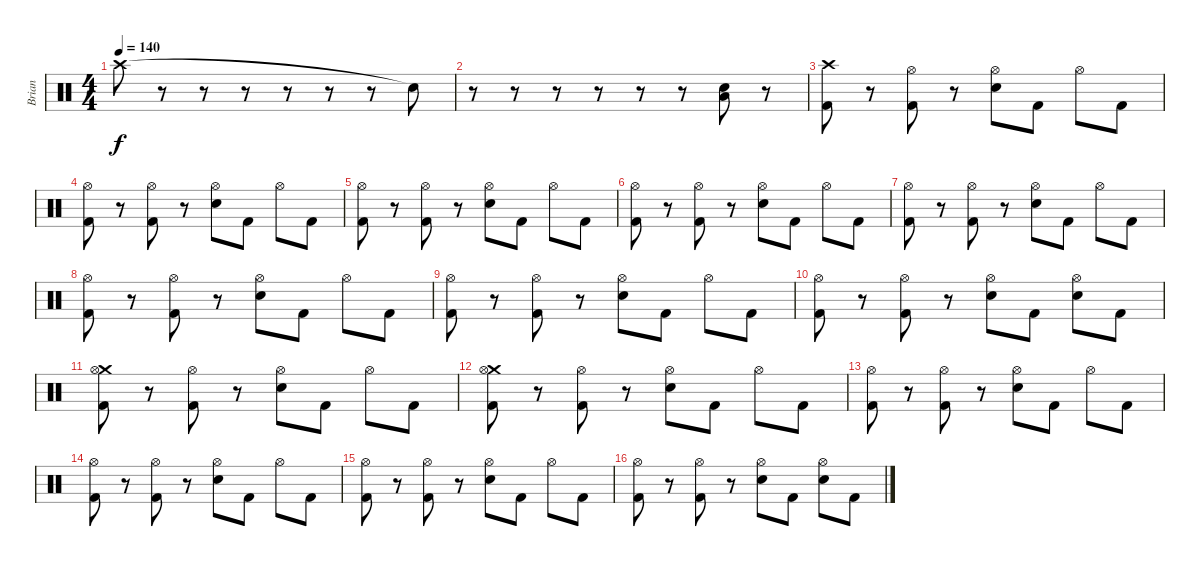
\track ("Brian" "Brian") {instrument percussion}
\staff {score}
\articulation defaults
\ts (4 4)
\tempo 140
\clef neutral
\ks c "Crash high (hit)".8{dy f volume 4}
r.8 r.8{volume 6} r.8 r.8{volume 9} r.8 r.8{volume 12} "Snare (hit)"{t}.8 |
r.8 r.8 r.8 r.8 r.8 r.8 ("Low Tom (hit)" "Electric Snare (hit)").8 r.8 |
("Crash high (hit)" "Kick (hit) 2").8 r.8 ("Hi-Hat (open)" "Kick (hit) 2").8 r.8 ("Hi-Hat (open)" "Electric Snare (hit)").8 "Kick (hit) 2".8 "Hi-Hat (open)".8 "Kick (hit) 2".8 |
("Hi-Hat (open)" "Kick (hit) 2").8 r.8 ("Hi-Hat (open)" "Kick (hit) 2").8 r.8 ("Hi-Hat (open)" "Electric Snare (hit)").8 "Kick (hit) 2".8 "Hi-Hat (open)".8 "Kick (hit) 2".8 |
("Hi-Hat (open)" "Kick (hit) 2").8 r.8 ("Hi-Hat (open)" "Kick (hit) 2").8 r.8 ("Hi-Hat (open)" "Electric Snare (hit)").8 "Kick (hit) 2".8 "Hi-Hat (open)".8 "Kick (hit) 2".8 |
("Hi-Hat (open)" "Kick (hit) 2").8 r.8 ("Hi-Hat (open)" "Kick (hit) 2").8 r.8 ("Hi-Hat (open)" "Electric Snare (hit)").8 "Kick (hit) 2".8 "Hi-Hat (open)".8 "Kick (hit) 2".8 |
("Hi-Hat (open)" "Kick (hit) 2").8 r.8 ("Hi-Hat (open)" "Kick (hit) 2").8 r.8 ("Hi-Hat (open)" "Electric Snare (hit)").8 "Kick (hit) 2".8 "Hi-Hat (open)".8 "Kick (hit) 2".8 |
("Hi-Hat (open)" "Kick (hit) 2").8 r.8 ("Hi-Hat (open)" "Kick (hit) 2").8 r.8 ("Hi-Hat (open)" "Electric Snare (hit)").8 "Kick (hit) 2".8 "Hi-Hat (open)".8 "Kick (hit) 2".8 |
("Hi-Hat (open)" "Kick (hit) 2").8 r.8 ("Hi-Hat (open)" "Kick (hit) 2").8 r.8 ("Hi-Hat (open)" "Electric Snare (hit)").8 "Kick (hit) 2".8 "Hi-Hat (open)".8 "Kick (hit) 2".8 |
("Hi-Hat (open)" "Kick (hit) 2").8 r.8 ("Hi-Hat (open)" "Kick (hit) 2").8 r.8 ("Hi-Hat (open)" "Electric Snare (hit)").8 "Kick (hit) 2".8 ("Hi-Hat (open)" "Electric Snare (hit)").8 "Kick (hit) 2".8 |
("Crash medium (hit)" "Hi-Hat (open)" "Kick (hit) 2").8 r.8 ("Hi-Hat (open)" "Kick (hit) 2").8 r.8 ("Hi-Hat (open)" "Electric Snare (hit)").8 "Kick (hit) 2".8 "Hi-Hat (open)".8 "Kick (hit) 2".8 |
("Crash medium (hit)" "Hi-Hat (open)" "Kick (hit) 2").8 r.8 ("Hi-Hat (open)" "Kick (hit) 2").8 r.8 ("Hi-Hat (open)" "Electric Snare (hit)").8 "Kick (hit) 2".8 "Hi-Hat (open)".8 "Kick (hit) 2".8 |
("Hi-Hat (open)" "Kick (hit) 2").8 r.8 ("Hi-Hat (open)" "Kick (hit) 2").8 r.8 ("Hi-Hat (open)" "Electric Snare (hit)").8 "Kick (hit) 2".8 "Hi-Hat (open)".8 "Kick (hit) 2".8 |
("Hi-Hat (open)" "Kick (hit) 2").8 r.8 ("Hi-Hat (open)" "Kick (hit) 2").8 r.8 ("Hi-Hat (open)" "Electric Snare (hit)").8 "Kick (hit) 2".8 "Hi-Hat (open)".8 "Kick (hit) 2".8 |
("Hi-Hat (open)" "Kick (hit) 2").8 r.8 ("Hi-Hat (open)" "Kick (hit) 2").8 r.8 ("Hi-Hat (open)" "Electric Snare (hit)").8 "Kick (hit) 2".8 "Hi-Hat (open)".8 "Kick (hit) 2".8 |
("Hi-Hat (open)" "Kick (hit) 2").8 r.8 ("Hi-Hat (open)" "Kick (hit) 2").8 r.8 ("Hi-Hat (open)" "Electric Snare (hit)").8 "Kick (hit) 2".8 ("Hi-Hat (open)" "Electric Snare (hit)").8 "Kick (hit) 2".8
